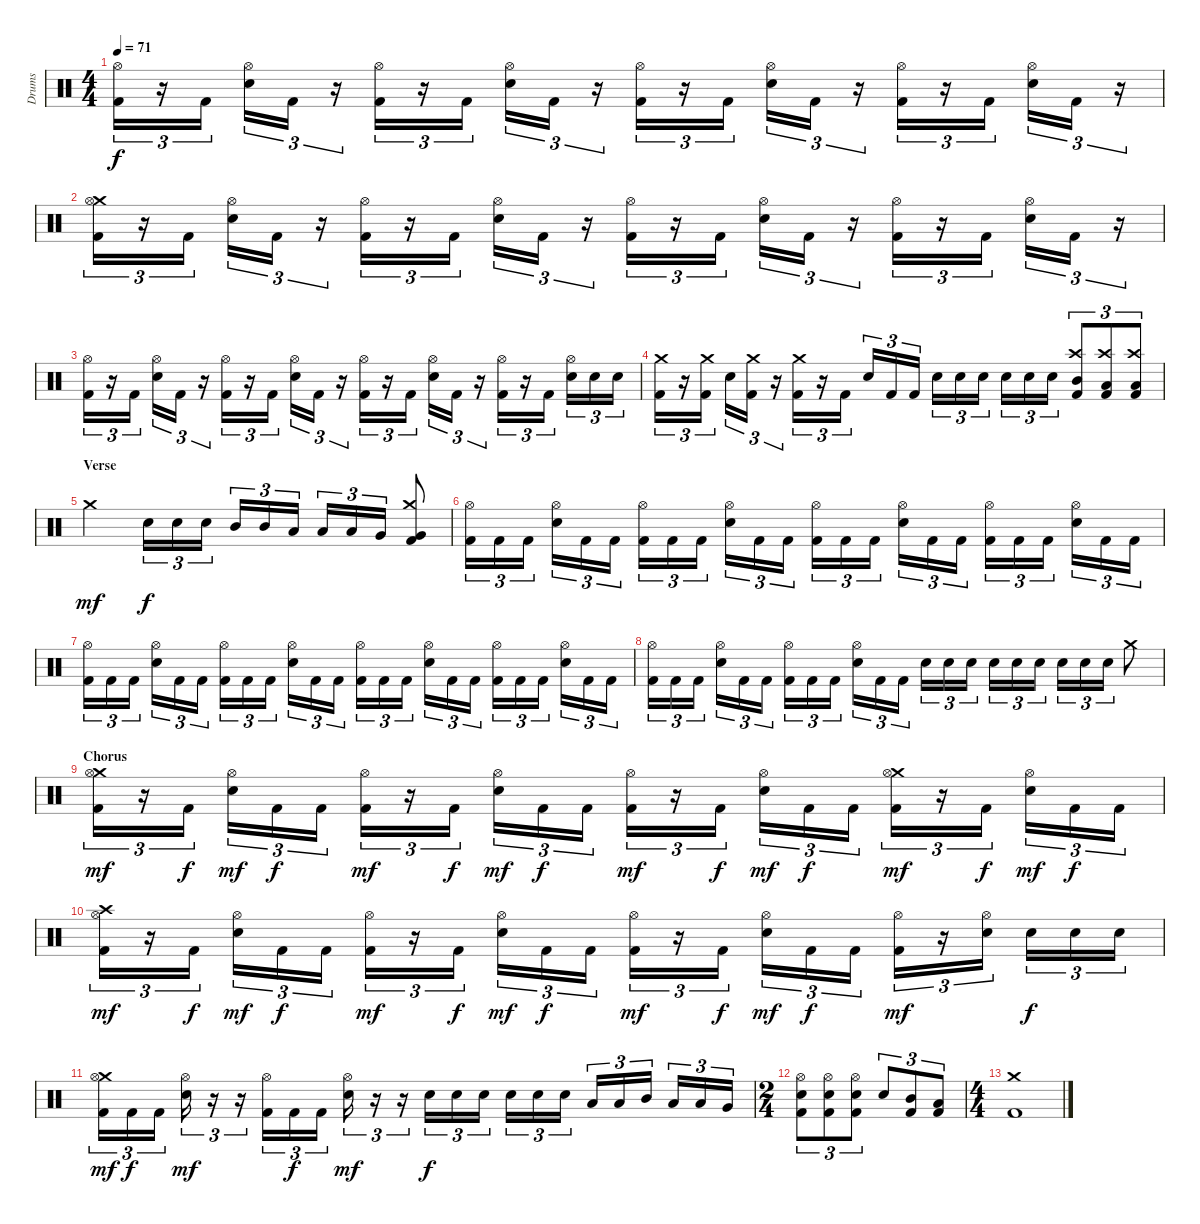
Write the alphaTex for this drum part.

\track ("Drums" "Drums") {instrument percussion}
\staff {score}
\articulation defaults
\ts (4 4)
\tempo 71
\clef neutral
\ks c
("Hi-Hat (open)" "Kick (hit) 2").16{tu (3 2) dy f} r.16{tu (3 2)} "Kick (hit) 2".16{tu (3 2)} ("Hi-Hat (open)" "Electric Snare (hit)").16{tu (3 2)} "Kick (hit) 2".16{tu (3 2)} r.16{tu (3 2)} ("Hi-Hat (open)" "Kick (hit) 2").16{tu (3 2)} r.16{tu (3 2)} "Kick (hit) 2".16{tu (3 2)} ("Hi-Hat (open)" "Electric Snare (hit)").16{tu (3 2)} "Kick (hit) 2".16{tu (3 2)} r.16{tu (3 2)} ("Hi-Hat (open)" "Kick (hit) 2").16{tu (3 2)} r.16{tu (3 2)} "Kick (hit) 2".16{tu (3 2)} ("Hi-Hat (open)" "Electric Snare (hit)").16{tu (3 2)} "Kick (hit) 2".16{tu (3 2)} r.16{tu (3 2)} ("Hi-Hat (open)" "Kick (hit) 2").16{tu (3 2)} r.16{tu (3 2)} "Kick (hit) 2".16{tu (3 2)} ("Hi-Hat (open)" "Electric Snare (hit)").16{tu (3 2)} "Kick (hit) 2".16{tu (3 2)} r.16{tu (3 2)} |
("Crash medium (hit)" "Hi-Hat (open)" "Kick (hit) 2").16{tu (3 2)} r.16{tu (3 2)} "Kick (hit) 2".16{tu (3 2)} ("Hi-Hat (open)" "Electric Snare (hit)").16{tu (3 2)} "Kick (hit) 2".16{tu (3 2)} r.16{tu (3 2)} ("Hi-Hat (open)" "Kick (hit) 2").16{tu (3 2)} r.16{tu (3 2)} "Kick (hit) 2".16{tu (3 2)} ("Hi-Hat (open)" "Electric Snare (hit)").16{tu (3 2)} "Kick (hit) 2".16{tu (3 2)} r.16{tu (3 2)} ("Hi-Hat (open)" "Kick (hit) 2").16{tu (3 2)} r.16{tu (3 2)} "Kick (hit) 2".16{tu (3 2)} ("Hi-Hat (open)" "Electric Snare (hit)").16{tu (3 2)} "Kick (hit) 2".16{tu (3 2)} r.16{tu (3 2)} ("Hi-Hat (open)" "Kick (hit) 2").16{tu (3 2)} r.16{tu (3 2)} "Kick (hit) 2".16{tu (3 2)} ("Hi-Hat (open)" "Electric Snare (hit)").16{tu (3 2)} "Kick (hit) 2".16{tu (3 2)} r.16{tu (3 2)} |
("Hi-Hat (open)" "Kick (hit) 2").16{tu (3 2)} r.16{tu (3 2)} "Kick (hit) 2".16{tu (3 2)} ("Hi-Hat (open)" "Electric Snare (hit)").16{tu (3 2)} "Kick (hit) 2".16{tu (3 2)} r.16{tu (3 2)} ("Hi-Hat (open)" "Kick (hit) 2").16{tu (3 2)} r.16{tu (3 2)} "Kick (hit) 2".16{tu (3 2)} ("Hi-Hat (open)" "Electric Snare (hit)").16{tu (3 2)} "Kick (hit) 2".16{tu (3 2)} r.16{tu (3 2)} ("Hi-Hat (open)" "Kick (hit) 2").16{tu (3 2)} r.16{tu (3 2)} "Kick (hit) 2".16{tu (3 2)} ("Hi-Hat (open)" "Electric Snare (hit)").16{tu (3 2)} "Kick (hit) 2".16{tu (3 2)} r.16{tu (3 2)} ("Hi-Hat (open)" "Kick (hit) 2").16{tu (3 2)} r.16{tu (3 2)} "Kick (hit) 2".16{tu (3 2)} ("Hi-Hat (open)" "Electric Snare (hit)").16{tu (3 2)} "Electric Snare (hit)".16{tu (3 2)} "Electric Snare (hit)".16{tu (3 2)} |
("Crash medium (hit)" "Kick (hit) 2").16{tu (3 2)} r.16{tu (3 2)} ("Crash medium (hit)" "Kick (hit) 2").16{tu (3 2)} "Electric Snare (hit)".16{tu (3 2)} ("Crash medium (hit)" "Kick (hit) 2").16{tu (3 2)} r.16{tu (3 2)} ("Crash medium (hit)" "Kick (hit) 2").16{tu (3 2)} r.16{tu (3 2)} "Kick (hit) 2".16{tu (3 2)} "Electric Snare (hit)".16{tu (3 2)} "Kick (hit) 2".16{tu (3 2)} "Kick (hit) 2".16{tu (3 2)} "Electric Snare (hit)".16{tu (3 2)} "Electric Snare (hit)".16{tu (3 2)} "Electric Snare (hit)".16{tu (3 2)} "Electric Snare (hit)".16{tu (3 2)} "Electric Snare (hit)".16{tu (3 2)} "Electric Snare (hit)".16{tu (3 2)} ("Crash high (hit)" "Mid Tom (hit)" "Kick (hit) 2").8{tu (3 2)} ("Crash high (hit)" "Low Tom (hit)" "Kick (hit) 2").8{tu (3 2)} ("Crash high (hit)" "Low Tom (hit)" "Kick (hit) 2").8{tu (3 2)} |
\section ("" "Verse")
"Crash medium (hit)".2{dy mf} "Electric Snare (hit)".16{tu (3 2) dy f} "Electric Snare (hit)".16{tu (3 2)} "Electric Snare (hit)".16{tu (3 2)} "Mid Tom (hit)".16{tu (3 2)} "Mid Tom (hit)".16{tu (3 2)} "Low Tom (hit)".16{tu (3 2)} "Low Tom (hit)".16{tu (3 2)} "Low Tom (hit)".16{tu (3 2)} "Very Low Tom (hit)".16{tu (3 2)} ("Crash medium (hit)" "Very Low Tom (hit)" "Kick (hit) 2").8 |
("Hi-Hat (open)" "Kick (hit) 2").16{tu (3 2)} "Kick (hit) 2".16{tu (3 2)} "Kick (hit) 2".16{tu (3 2)} ("Hi-Hat (open)" "Electric Snare (hit)").16{tu (3 2)} "Kick (hit) 2".16{tu (3 2)} "Kick (hit) 2".16{tu (3 2)} ("Hi-Hat (open)" "Kick (hit) 2").16{tu (3 2)} "Kick (hit) 2".16{tu (3 2)} "Kick (hit) 2".16{tu (3 2)} ("Hi-Hat (open)" "Electric Snare (hit)").16{tu (3 2)} "Kick (hit) 2".16{tu (3 2)} "Kick (hit) 2".16{tu (3 2)} ("Hi-Hat (open)" "Kick (hit) 2").16{tu (3 2)} "Kick (hit) 2".16{tu (3 2)} "Kick (hit) 2".16{tu (3 2)} ("Hi-Hat (open)" "Electric Snare (hit)").16{tu (3 2)} "Kick (hit) 2".16{tu (3 2)} "Kick (hit) 2".16{tu (3 2)} ("Hi-Hat (open)" "Kick (hit) 2").16{tu (3 2)} "Kick (hit) 2".16{tu (3 2)} "Kick (hit) 2".16{tu (3 2)} ("Hi-Hat (open)" "Electric Snare (hit)").16{tu (3 2)} "Kick (hit) 2".16{tu (3 2)} "Kick (hit) 2".16{tu (3 2)} |
("Hi-Hat (open)" "Kick (hit) 2").16{tu (3 2)} "Kick (hit) 2".16{tu (3 2)} "Kick (hit) 2".16{tu (3 2)} ("Hi-Hat (open)" "Electric Snare (hit)").16{tu (3 2)} "Kick (hit) 2".16{tu (3 2)} "Kick (hit) 2".16{tu (3 2)} ("Hi-Hat (open)" "Kick (hit) 2").16{tu (3 2)} "Kick (hit) 2".16{tu (3 2)} "Kick (hit) 2".16{tu (3 2)} ("Hi-Hat (open)" "Electric Snare (hit)").16{tu (3 2)} "Kick (hit) 2".16{tu (3 2)} "Kick (hit) 2".16{tu (3 2)} ("Hi-Hat (open)" "Kick (hit) 2").16{tu (3 2)} "Kick (hit) 2".16{tu (3 2)} "Kick (hit) 2".16{tu (3 2)} ("Hi-Hat (open)" "Electric Snare (hit)").16{tu (3 2)} "Kick (hit) 2".16{tu (3 2)} "Kick (hit) 2".16{tu (3 2)} ("Hi-Hat (open)" "Kick (hit) 2").16{tu (3 2)} "Kick (hit) 2".16{tu (3 2)} "Kick (hit) 2".16{tu (3 2)} ("Hi-Hat (open)" "Electric Snare (hit)").16{tu (3 2)} "Kick (hit) 2".16{tu (3 2)} "Kick (hit) 2".16{tu (3 2)} |
("Hi-Hat (open)" "Kick (hit) 2").16{tu (3 2)} "Kick (hit) 2".16{tu (3 2)} "Kick (hit) 2".16{tu (3 2)} ("Hi-Hat (open)" "Electric Snare (hit)").16{tu (3 2)} "Kick (hit) 2".16{tu (3 2)} "Kick (hit) 2".16{tu (3 2)} ("Hi-Hat (open)" "Kick (hit) 2").16{tu (3 2)} "Kick (hit) 2".16{tu (3 2)} "Kick (hit) 2".16{tu (3 2)} ("Hi-Hat (open)" "Electric Snare (hit)").16{tu (3 2)} "Kick (hit) 2".16{tu (3 2)} "Kick (hit) 2".16{tu (3 2)} "Electric Snare (hit)".16{tu (3 2)} "Electric Snare (hit)".16{tu (3 2)} "Electric Snare (hit)".16{tu (3 2)} "Electric Snare (hit)".16{tu (3 2)} "Electric Snare (hit)".16{tu (3 2)} "Electric Snare (hit)".16{tu (3 2)} "Electric Snare (hit)".16{tu (3 2)} "Electric Snare (hit)".16{tu (3 2)} "Electric Snare (hit)".16{tu (3 2)} "Crash medium (hit)".8 |
\section ("" "Chorus")
("Crash medium (hit)" "Hi-Hat (open)" "Kick (hit) 2").16{tu (3 2) dy mf} r.16{tu (3 2)} "Kick (hit) 2".16{tu (3 2) dy f} ("Hi-Hat (open)" "Electric Snare (hit)").16{tu (3 2) dy mf} "Kick (hit) 2".16{tu (3 2) dy f} "Kick (hit) 2".16{tu (3 2)} ("Hi-Hat (open)" "Kick (hit) 2").16{tu (3 2) dy mf} r.16{tu (3 2)} "Kick (hit) 2".16{tu (3 2) dy f} ("Hi-Hat (open)" "Electric Snare (hit)").16{tu (3 2) dy mf} "Kick (hit) 2".16{tu (3 2) dy f} "Kick (hit) 2".16{tu (3 2)} ("Hi-Hat (open)" "Kick (hit) 2").16{tu (3 2) dy mf} r.16{tu (3 2)} "Kick (hit) 2".16{tu (3 2) dy f} ("Hi-Hat (open)" "Electric Snare (hit)").16{tu (3 2) dy mf} "Kick (hit) 2".16{tu (3 2) dy f} "Kick (hit) 2".16{tu (3 2)} ("Crash medium (hit)" "Hi-Hat (open)" "Kick (hit) 2").16{tu (3 2) dy mf} r.16{tu (3 2)} "Kick (hit) 2".16{tu (3 2) dy f} ("Hi-Hat (open)" "Electric Snare (hit)").16{tu (3 2) dy mf} "Kick (hit) 2".16{tu (3 2) dy f} "Kick (hit) 2".16{tu (3 2)} |
("Crash high (hit)" "Hi-Hat (open)" "Kick (hit) 2").16{tu (3 2) dy mf} r.16{tu (3 2)} "Kick (hit) 2".16{tu (3 2) dy f} ("Hi-Hat (open)" "Electric Snare (hit)").16{tu (3 2) dy mf} "Kick (hit) 2".16{tu (3 2) dy f} "Kick (hit) 2".16{tu (3 2)} ("Hi-Hat (open)" "Kick (hit) 2").16{tu (3 2) dy mf} r.16{tu (3 2)} "Kick (hit) 2".16{tu (3 2) dy f} ("Hi-Hat (open)" "Electric Snare (hit)").16{tu (3 2) dy mf} "Kick (hit) 2".16{tu (3 2) dy f} "Kick (hit) 2".16{tu (3 2)} ("Hi-Hat (open)" "Kick (hit) 2").16{tu (3 2) dy mf} r.16{tu (3 2)} "Kick (hit) 2".16{tu (3 2) dy f} ("Hi-Hat (open)" "Electric Snare (hit)").16{tu (3 2) dy mf} "Kick (hit) 2".16{tu (3 2) dy f} "Kick (hit) 2".16{tu (3 2)} ("Hi-Hat (open)" "Kick (hit) 2").16{tu (3 2) dy mf} r.16{tu (3 2)} ("Hi-Hat (open)" "Electric Snare (hit)").16{tu (3 2)} "Electric Snare (hit)".16{tu (3 2) dy f} "Electric Snare (hit)".16{tu (3 2)} "Electric Snare (hit)".16{tu (3 2)} |
("Crash medium (hit)" "Hi-Hat (open)" "Kick (hit) 2").16{tu (3 2) dy mf} "Kick (hit) 2".16{tu (3 2) dy f} "Kick (hit) 2".16{tu (3 2)} ("Hi-Hat (open)" "Electric Snare (hit)").16{tu (3 2) dy mf} r.16{tu (3 2)} r.16{tu (3 2)} ("Hi-Hat (open)" "Kick (hit) 2").16{tu (3 2)} "Kick (hit) 2".16{tu (3 2) dy f} "Kick (hit) 2".16{tu (3 2)} ("Hi-Hat (open)" "Electric Snare (hit)").16{tu (3 2) dy mf} r.16{tu (3 2)} r.16{tu (3 2)} "Electric Snare (hit)".16{tu (3 2) dy f} "Electric Snare (hit)".16{tu (3 2)} "Electric Snare (hit)".16{tu (3 2)} "Electric Snare (hit)".16{tu (3 2)} "Electric Snare (hit)".16{tu (3 2)} "Electric Snare (hit)".16{tu (3 2)} "Low Tom (hit)".16{tu (3 2)} "Low Tom (hit)".16{tu (3 2)} "Mid Tom (hit)".16{tu (3 2)} "Low Tom (hit)".16{tu (3 2)} "Low Tom (hit)".16{tu (3 2)} "Very Low Tom (hit)".16{tu (3 2)} |
\ts (2 4)
("Hi-Hat (open)" "Electric Snare (hit)" "Kick (hit) 2").8{tu (3 2)} ("Hi-Hat (open)" "Electric Snare (hit)" "Kick (hit) 2").8{tu (3 2)} ("Hi-Hat (open)" "Electric Snare (hit)" "Kick (hit) 2").8{tu (3 2)} "Electric Snare (hit)".8{tu (3 2)} ("Mid Tom (hit)" "Kick (hit) 2").8{tu (3 2)} ("Low Tom (hit)" "Kick (hit) 2").8{tu (3 2)} |
\ts (4 4)
("Crash medium (hit)" "Kick (hit) 2").1
